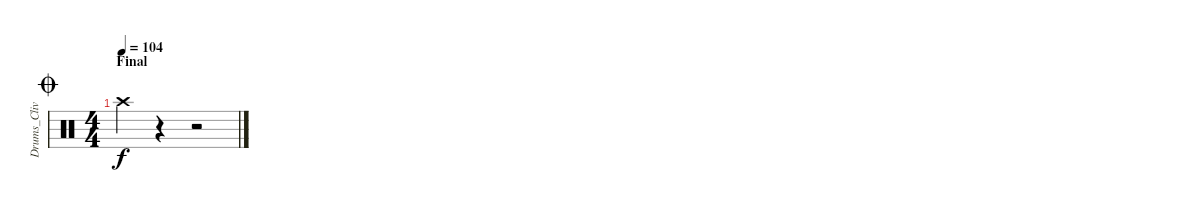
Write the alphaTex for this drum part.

\track ("Drums_CliveBurr" "Drums_Cliv") {instrument percussion}
\staff {score}
\articulation defaults
\ts (4 4)
\section ("" "Final")
\jump coda
\tempo 104
\clef neutral
\ks c "Crash high (hit)".4{dy f}
r.4 r.2
